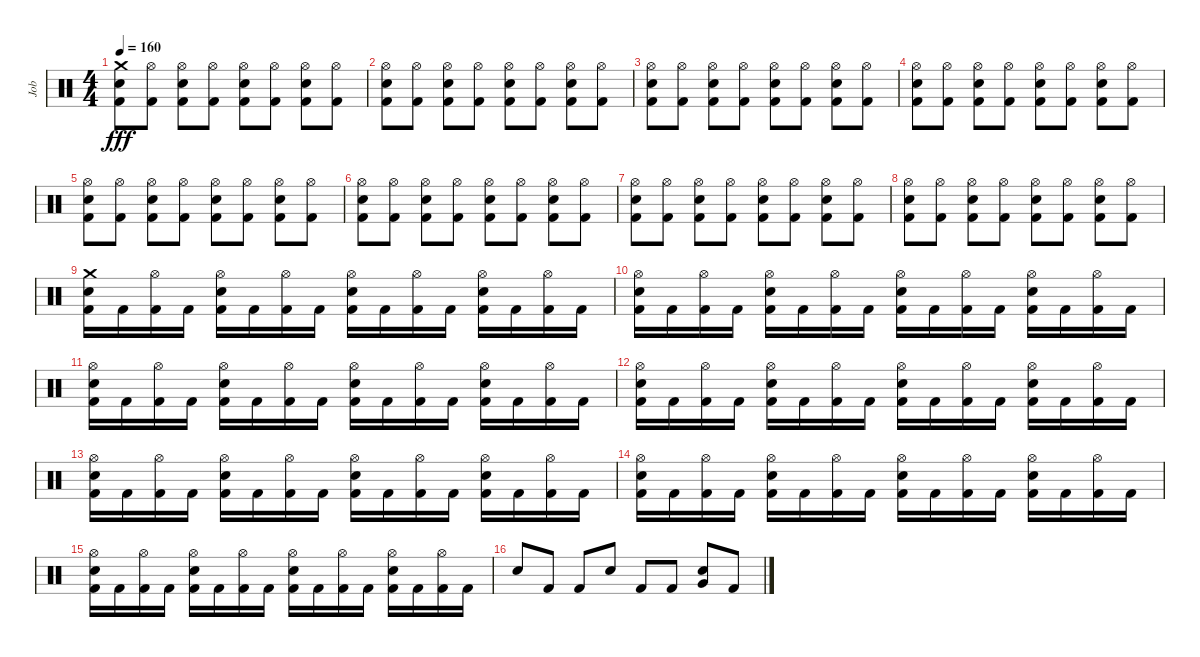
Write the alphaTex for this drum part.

\track ("Job" "Job") {instrument percussion}
\staff {score}
\articulation defaults
\ts (4 4)
\tempo 160
\clef neutral
\ks c
("Crash medium (hit)" "Electric Snare (hit)" "Kick (hit) 2").8{dy fff} ("Hi-Hat (open)" "Kick (hit) 2").8 ("Hi-Hat (open)" "Electric Snare (hit)" "Kick (hit) 2").8 ("Hi-Hat (open)" "Kick (hit) 2").8 ("Hi-Hat (open)" "Electric Snare (hit)" "Kick (hit) 2").8 ("Hi-Hat (open)" "Kick (hit) 2").8 ("Hi-Hat (open)" "Electric Snare (hit)" "Kick (hit) 2").8 ("Hi-Hat (open)" "Kick (hit) 2").8 |
("Hi-Hat (open)" "Electric Snare (hit)" "Kick (hit) 2").8 ("Hi-Hat (open)" "Kick (hit) 2").8 ("Hi-Hat (open)" "Electric Snare (hit)" "Kick (hit) 2").8 ("Hi-Hat (open)" "Kick (hit) 2").8 ("Hi-Hat (open)" "Electric Snare (hit)" "Kick (hit) 2").8 ("Hi-Hat (open)" "Kick (hit) 2").8 ("Hi-Hat (open)" "Electric Snare (hit)" "Kick (hit) 2").8 ("Hi-Hat (open)" "Kick (hit) 2").8 |
("Hi-Hat (open)" "Electric Snare (hit)" "Kick (hit) 2").8 ("Hi-Hat (open)" "Kick (hit) 2").8 ("Hi-Hat (open)" "Electric Snare (hit)" "Kick (hit) 2").8 ("Hi-Hat (open)" "Kick (hit) 2").8 ("Hi-Hat (open)" "Electric Snare (hit)" "Kick (hit) 2").8 ("Hi-Hat (open)" "Kick (hit) 2").8 ("Hi-Hat (open)" "Electric Snare (hit)" "Kick (hit) 2").8 ("Hi-Hat (open)" "Kick (hit) 2").8 |
("Hi-Hat (open)" "Electric Snare (hit)" "Kick (hit) 2").8 ("Hi-Hat (open)" "Kick (hit) 2").8 ("Hi-Hat (open)" "Electric Snare (hit)" "Kick (hit) 2").8 ("Hi-Hat (open)" "Kick (hit) 2").8 ("Hi-Hat (open)" "Electric Snare (hit)" "Kick (hit) 2").8 ("Hi-Hat (open)" "Kick (hit) 2").8 ("Hi-Hat (open)" "Electric Snare (hit)" "Kick (hit) 2").8 ("Hi-Hat (open)" "Kick (hit) 2").8 |
("Hi-Hat (open)" "Electric Snare (hit)" "Kick (hit) 2").8 ("Hi-Hat (open)" "Kick (hit) 2").8 ("Hi-Hat (open)" "Electric Snare (hit)" "Kick (hit) 2").8 ("Hi-Hat (open)" "Kick (hit) 2").8 ("Hi-Hat (open)" "Electric Snare (hit)" "Kick (hit) 2").8 ("Hi-Hat (open)" "Kick (hit) 2").8 ("Hi-Hat (open)" "Electric Snare (hit)" "Kick (hit) 2").8 ("Hi-Hat (open)" "Kick (hit) 2").8 |
("Hi-Hat (open)" "Electric Snare (hit)" "Kick (hit) 2").8 ("Hi-Hat (open)" "Kick (hit) 2").8 ("Hi-Hat (open)" "Electric Snare (hit)" "Kick (hit) 2").8 ("Hi-Hat (open)" "Kick (hit) 2").8 ("Hi-Hat (open)" "Electric Snare (hit)" "Kick (hit) 2").8 ("Hi-Hat (open)" "Kick (hit) 2").8 ("Hi-Hat (open)" "Electric Snare (hit)" "Kick (hit) 2").8 ("Hi-Hat (open)" "Kick (hit) 2").8 |
("Hi-Hat (open)" "Electric Snare (hit)" "Kick (hit) 2").8 ("Hi-Hat (open)" "Kick (hit) 2").8 ("Hi-Hat (open)" "Electric Snare (hit)" "Kick (hit) 2").8 ("Hi-Hat (open)" "Kick (hit) 2").8 ("Hi-Hat (open)" "Electric Snare (hit)" "Kick (hit) 2").8 ("Hi-Hat (open)" "Kick (hit) 2").8 ("Hi-Hat (open)" "Electric Snare (hit)" "Kick (hit) 2").8 ("Hi-Hat (open)" "Kick (hit) 2").8 |
("Hi-Hat (open)" "Electric Snare (hit)" "Kick (hit) 2").8 ("Hi-Hat (open)" "Kick (hit) 2").8 ("Hi-Hat (open)" "Electric Snare (hit)" "Kick (hit) 2").8 ("Hi-Hat (open)" "Kick (hit) 2").8 ("Hi-Hat (open)" "Electric Snare (hit)" "Kick (hit) 2").8 ("Hi-Hat (open)" "Kick (hit) 2").8 ("Hi-Hat (open)" "Electric Snare (hit)" "Kick (hit) 2").8 ("Hi-Hat (open)" "Kick (hit) 2").8 |
("Crash medium (hit)" "Electric Snare (hit)" "Kick (hit) 2").16 "Kick (hit) 2".16 ("Hi-Hat (open)" "Kick (hit) 2").16 "Kick (hit) 2".16 ("Hi-Hat (open)" "Electric Snare (hit)" "Kick (hit) 2").16 "Kick (hit) 2".16 ("Hi-Hat (open)" "Kick (hit) 2").16 "Kick (hit) 2".16 ("Hi-Hat (open)" "Electric Snare (hit)" "Kick (hit) 2").16 "Kick (hit) 2".16 ("Hi-Hat (open)" "Kick (hit) 2").16 "Kick (hit) 2".16 ("Hi-Hat (open)" "Electric Snare (hit)" "Kick (hit) 2").16 "Kick (hit) 2".16 ("Hi-Hat (open)" "Kick (hit) 2").16 "Kick (hit) 2".16 |
("Hi-Hat (open)" "Electric Snare (hit)" "Kick (hit) 2").16 "Kick (hit) 2".16 ("Hi-Hat (open)" "Kick (hit) 2").16 "Kick (hit) 2".16 ("Hi-Hat (open)" "Electric Snare (hit)" "Kick (hit) 2").16 "Kick (hit) 2".16 ("Hi-Hat (open)" "Kick (hit) 2").16 "Kick (hit) 2".16 ("Hi-Hat (open)" "Electric Snare (hit)" "Kick (hit) 2").16 "Kick (hit) 2".16 ("Hi-Hat (open)" "Kick (hit) 2").16 "Kick (hit) 2".16 ("Hi-Hat (open)" "Electric Snare (hit)" "Kick (hit) 2").16 "Kick (hit) 2".16 ("Hi-Hat (open)" "Kick (hit) 2").16 "Kick (hit) 2".16 |
("Hi-Hat (open)" "Electric Snare (hit)" "Kick (hit) 2").16 "Kick (hit) 2".16 ("Hi-Hat (open)" "Kick (hit) 2").16 "Kick (hit) 2".16 ("Hi-Hat (open)" "Electric Snare (hit)" "Kick (hit) 2").16 "Kick (hit) 2".16 ("Hi-Hat (open)" "Kick (hit) 2").16 "Kick (hit) 2".16 ("Hi-Hat (open)" "Electric Snare (hit)" "Kick (hit) 2").16 "Kick (hit) 2".16 ("Hi-Hat (open)" "Kick (hit) 2").16 "Kick (hit) 2".16 ("Hi-Hat (open)" "Electric Snare (hit)" "Kick (hit) 2").16 "Kick (hit) 2".16 ("Hi-Hat (open)" "Kick (hit) 2").16 "Kick (hit) 2".16 |
("Hi-Hat (open)" "Electric Snare (hit)" "Kick (hit) 2").16 "Kick (hit) 2".16 ("Hi-Hat (open)" "Kick (hit) 2").16 "Kick (hit) 2".16 ("Hi-Hat (open)" "Electric Snare (hit)" "Kick (hit) 2").16 "Kick (hit) 2".16 ("Hi-Hat (open)" "Kick (hit) 2").16 "Kick (hit) 2".16 ("Hi-Hat (open)" "Electric Snare (hit)" "Kick (hit) 2").16 "Kick (hit) 2".16 ("Hi-Hat (open)" "Kick (hit) 2").16 "Kick (hit) 2".16 ("Hi-Hat (open)" "Electric Snare (hit)" "Kick (hit) 2").16 "Kick (hit) 2".16 ("Hi-Hat (open)" "Kick (hit) 2").16 "Kick (hit) 2".16 |
("Hi-Hat (open)" "Electric Snare (hit)" "Kick (hit) 2").16 "Kick (hit) 2".16 ("Hi-Hat (open)" "Kick (hit) 2").16 "Kick (hit) 2".16 ("Hi-Hat (open)" "Electric Snare (hit)" "Kick (hit) 2").16 "Kick (hit) 2".16 ("Hi-Hat (open)" "Kick (hit) 2").16 "Kick (hit) 2".16 ("Hi-Hat (open)" "Electric Snare (hit)" "Kick (hit) 2").16 "Kick (hit) 2".16 ("Hi-Hat (open)" "Kick (hit) 2").16 "Kick (hit) 2".16 ("Hi-Hat (open)" "Electric Snare (hit)" "Kick (hit) 2").16 "Kick (hit) 2".16 ("Hi-Hat (open)" "Kick (hit) 2").16 "Kick (hit) 2".16 |
("Hi-Hat (open)" "Electric Snare (hit)" "Kick (hit) 2").16 "Kick (hit) 2".16 ("Hi-Hat (open)" "Kick (hit) 2").16 "Kick (hit) 2".16 ("Hi-Hat (open)" "Electric Snare (hit)" "Kick (hit) 2").16 "Kick (hit) 2".16 ("Hi-Hat (open)" "Kick (hit) 2").16 "Kick (hit) 2".16 ("Hi-Hat (open)" "Electric Snare (hit)" "Kick (hit) 2").16 "Kick (hit) 2".16 ("Hi-Hat (open)" "Kick (hit) 2").16 "Kick (hit) 2".16 ("Hi-Hat (open)" "Electric Snare (hit)" "Kick (hit) 2").16 "Kick (hit) 2".16 ("Hi-Hat (open)" "Kick (hit) 2").16 "Kick (hit) 2".16 |
("Hi-Hat (open)" "Electric Snare (hit)" "Kick (hit) 2").16 "Kick (hit) 2".16 ("Hi-Hat (open)" "Kick (hit) 2").16 "Kick (hit) 2".16 ("Hi-Hat (open)" "Electric Snare (hit)" "Kick (hit) 2").16 "Kick (hit) 2".16 ("Hi-Hat (open)" "Kick (hit) 2").16 "Kick (hit) 2".16 ("Hi-Hat (open)" "Electric Snare (hit)" "Kick (hit) 2").16 "Kick (hit) 2".16 ("Hi-Hat (open)" "Kick (hit) 2").16 "Kick (hit) 2".16 ("Hi-Hat (open)" "Electric Snare (hit)" "Kick (hit) 2").16 "Kick (hit) 2".16 ("Hi-Hat (open)" "Kick (hit) 2").16 "Kick (hit) 2".16 |
"Electric Snare (hit)".8 "Kick (hit) 2".8 "Kick (hit) 2".8 "Electric Snare (hit)".8 "Kick (hit) 2".8 "Kick (hit) 2".8 ("Electric Snare (hit)" "Very Low Tom (hit)").8 "Kick (hit) 2".8
